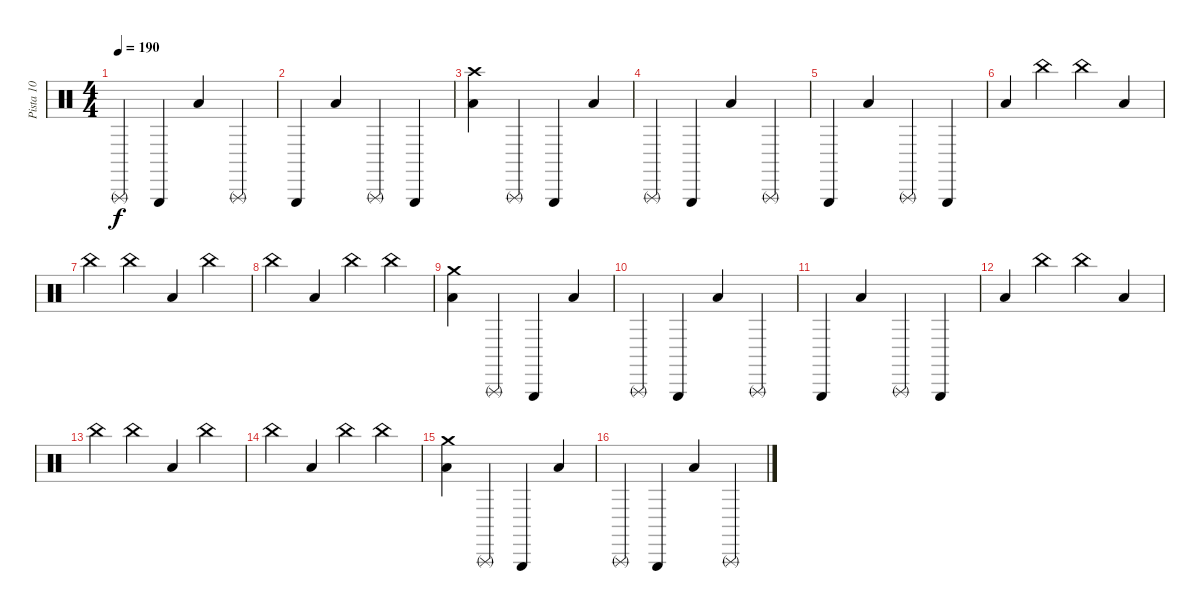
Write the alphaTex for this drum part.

\track ("Pista 10" "Pista 10") {instrument percussion}
\staff {score}
\articulation defaults
\ts (4 4)
\tempo 190
\clef neutral
\ks c "Triangle (rnute)".4{dy f} "Triangle (hit)".4 "Low Floor Tom (hit)".4 "Triangle (rnute)".4
|
"Triangle (hit)".4 "Low Floor Tom (hit)".4 "Triangle (rnute)".4 "Triangle (hit)".4 |
("Low Floor Tom (hit)" "Crash high (hit)").4 "Triangle (rnute)".4 "Triangle (hit)".4 "Low Floor Tom (hit)".4 |
"Triangle (rnute)".4 "Triangle (hit)".4 "Low Floor Tom (hit)".4 "Triangle (rnute)".4 |
"Triangle (hit)".4 "Low Floor Tom (hit)".4 "Triangle (rnute)".4 "Triangle (hit)".4 |
"Low Floor Tom (hit)".4 "China (hit)".4 "China (hit)".4 "Low Floor Tom (hit)".4 |
"China (hit)".4 "China (hit)".4 "Low Floor Tom (hit)".4 "China (hit)".4 |
"China (hit)".4 "Low Floor Tom (hit)".4 "China (hit)".4 "China (hit)".4 |
("Crash medium (hit)" "Low Floor Tom (hit)").4 "Triangle (rnute)".4 "Triangle (hit)".4 "Low Floor Tom (hit)".4 |
"Triangle (rnute)".4 "Triangle (hit)".4 "Low Floor Tom (hit)".4 "Triangle (rnute)".4 |
"Triangle (hit)".4 "Low Floor Tom (hit)".4 "Triangle (rnute)".4 "Triangle (hit)".4 |
"Low Floor Tom (hit)".4 "China (hit)".4 "China (hit)".4 "Low Floor Tom (hit)".4 |
"China (hit)".4 "China (hit)".4 "Low Floor Tom (hit)".4 "China (hit)".4 |
"China (hit)".4 "Low Floor Tom (hit)".4 "China (hit)".4 "China (hit)".4 |
("Crash medium (hit)" "Low Floor Tom (hit)").4 "Triangle (rnute)".4 "Triangle (hit)".4 "Low Floor Tom (hit)".4 |
"Triangle (rnute)".4 "Triangle (hit)".4 "Low Floor Tom (hit)".4 "Triangle (rnute)".4
